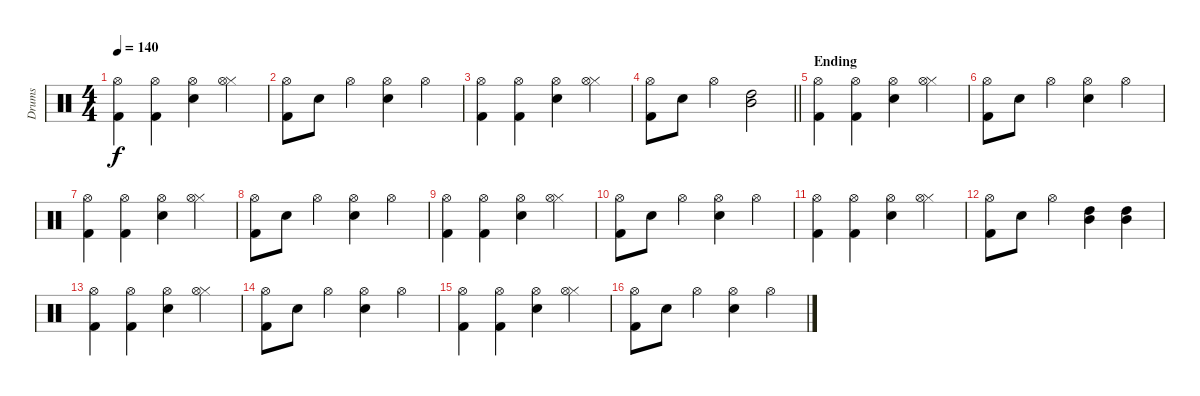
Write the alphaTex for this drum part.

\track ("Drums" "Drums") {instrument percussion}
\staff {score}
\articulation defaults
\ts (4 4)
\tempo 140
\clef neutral
\ks c
("Kick (hit) 2" "Hi-Hat (open)").4{dy f} ("Kick (hit) 2" "Hi-Hat (open)").4 ("Electric Snare (hit)" "Hi-Hat (open)").4 ("Hi-Hat (closed)" "Hi-Hat (open)").4 |
("Kick (hit) 2" "Hi-Hat (open)").8 "Electric Snare (hit)".8 "Hi-Hat (open)".4 ("Electric Snare (hit)" "Hi-Hat (open)").4 "Hi-Hat (open)".4 |
("Kick (hit) 2" "Hi-Hat (open)").4 ("Kick (hit) 2" "Hi-Hat (open)").4 ("Electric Snare (hit)" "Hi-Hat (open)").4 ("Hi-Hat (closed)" "Hi-Hat (open)").4 |
\barLineRight lightlight
("Kick (hit) 2" "Hi-Hat (open)").8 "Electric Snare (hit)".8 "Hi-Hat (open)".4 ("Mid Tom (hit)" "High Tom (hit)").2 |
\section ("" "Ending")
("Kick (hit) 2" "Hi-Hat (open)").4 ("Kick (hit) 2" "Hi-Hat (open)").4 ("Electric Snare (hit)" "Hi-Hat (open)").4 ("Hi-Hat (closed)" "Hi-Hat (open)").4 |
("Kick (hit) 2" "Hi-Hat (open)").8 "Electric Snare (hit)".8 "Hi-Hat (open)".4 ("Electric Snare (hit)" "Hi-Hat (open)").4 "Hi-Hat (open)".4 |
("Kick (hit) 2" "Hi-Hat (open)").4 ("Kick (hit) 2" "Hi-Hat (open)").4 ("Electric Snare (hit)" "Hi-Hat (open)").4 ("Hi-Hat (closed)" "Hi-Hat (open)").4 |
("Kick (hit) 2" "Hi-Hat (open)").8 "Electric Snare (hit)".8 "Hi-Hat (open)".4 ("Electric Snare (hit)" "Hi-Hat (open)").4 "Hi-Hat (open)".4 |
("Kick (hit) 2" "Hi-Hat (open)").4 ("Kick (hit) 2" "Hi-Hat (open)").4 ("Electric Snare (hit)" "Hi-Hat (open)").4 ("Hi-Hat (closed)" "Hi-Hat (open)").4 |
("Kick (hit) 2" "Hi-Hat (open)").8 "Electric Snare (hit)".8 "Hi-Hat (open)".4 ("Electric Snare (hit)" "Hi-Hat (open)").4 "Hi-Hat (open)".4 |
("Kick (hit) 2" "Hi-Hat (open)").4 ("Kick (hit) 2" "Hi-Hat (open)").4 ("Electric Snare (hit)" "Hi-Hat (open)").4 ("Hi-Hat (closed)" "Hi-Hat (open)").4 |
("Kick (hit) 2" "Hi-Hat (open)").8 "Electric Snare (hit)".8 "Hi-Hat (open)".4 ("Mid Tom (hit)" "High Tom (hit)").4 ("Mid Tom (hit)" "High Tom (hit)").4 |
("Kick (hit) 2" "Hi-Hat (open)").4 ("Kick (hit) 2" "Hi-Hat (open)").4 ("Electric Snare (hit)" "Hi-Hat (open)").4 ("Hi-Hat (closed)" "Hi-Hat (open)").4 |
("Kick (hit) 2" "Hi-Hat (open)").8 "Electric Snare (hit)".8 "Hi-Hat (open)".4 ("Electric Snare (hit)" "Hi-Hat (open)").4 "Hi-Hat (open)".4 |
("Kick (hit) 2" "Hi-Hat (open)").4 ("Kick (hit) 2" "Hi-Hat (open)").4 ("Electric Snare (hit)" "Hi-Hat (open)").4 ("Hi-Hat (closed)" "Hi-Hat (open)").4 |
("Kick (hit) 2" "Hi-Hat (open)").8 "Electric Snare (hit)".8 "Hi-Hat (open)".4 ("Electric Snare (hit)" "Hi-Hat (open)").4 "Hi-Hat (open)".4
